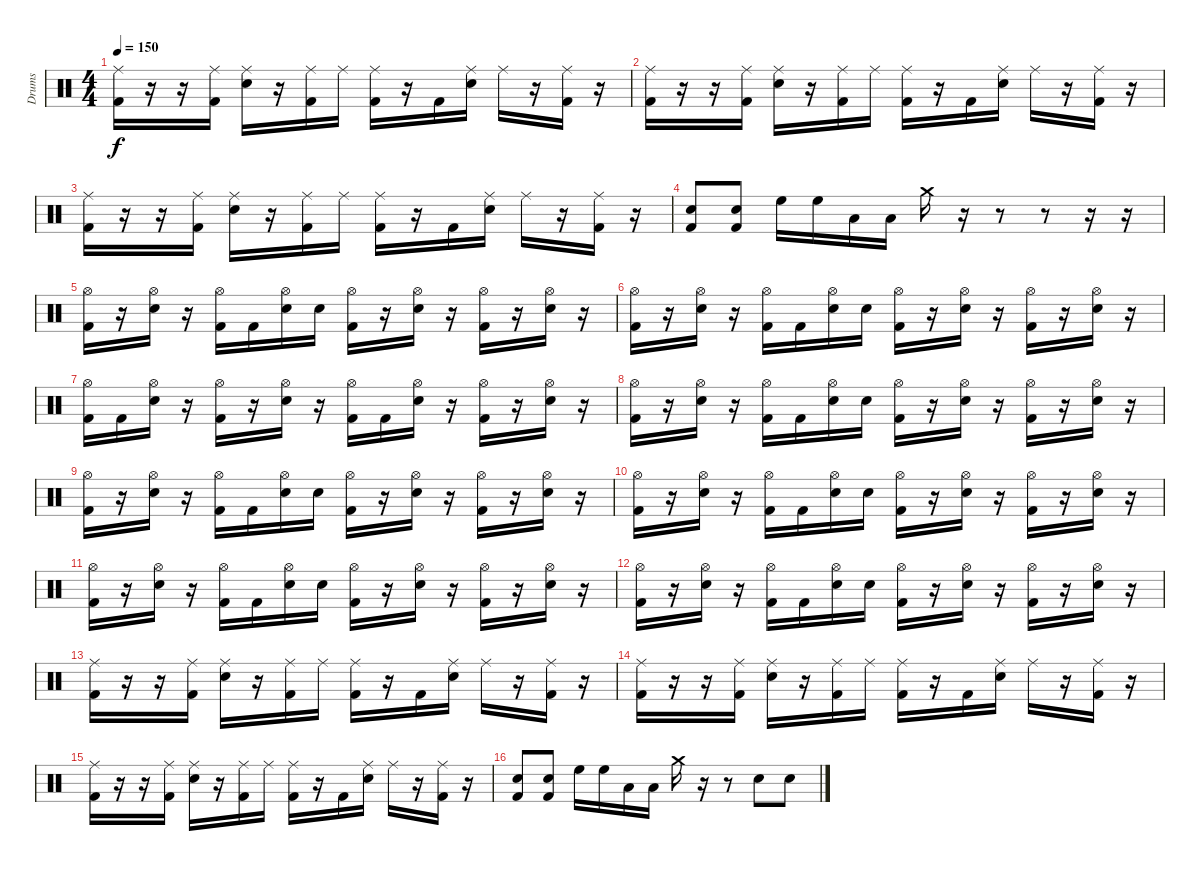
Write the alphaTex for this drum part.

\track ("Drums" "Drums") {instrument percussion}
\staff {score}
\articulation defaults
\ts (4 4)
\tempo 150
\clef neutral
\ks c
("Ride (middle)" "Kick (hit) 2").16{dy f} r.16 r.16 ("Ride (middle)" "Kick (hit) 2").16 ("Ride (middle)" "Electric Snare (hit)").16 r.16 ("Ride (middle)" "Kick (hit) 2").16 "Ride (middle)".16 ("Ride (middle)" "Kick (hit) 2").16 r.16 "Kick (hit) 2".16 ("Ride (middle)" "Electric Snare (hit)").16 "Ride (middle)".16 r.16 ("Ride (middle)" "Kick (hit) 2").16 r.16 |
("Ride (middle)" "Kick (hit) 2").16 r.16 r.16 ("Ride (middle)" "Kick (hit) 2").16 ("Ride (middle)" "Electric Snare (hit)").16 r.16 ("Ride (middle)" "Kick (hit) 2").16 "Ride (middle)".16 ("Ride (middle)" "Kick (hit) 2").16 r.16 "Kick (hit) 2".16 ("Ride (middle)" "Electric Snare (hit)").16 "Ride (middle)".16 r.16 ("Ride (middle)" "Kick (hit) 2").16 r.16 |
("Ride (middle)" "Kick (hit) 2").16 r.16 r.16 ("Ride (middle)" "Kick (hit) 2").16 ("Ride (middle)" "Electric Snare (hit)").16 r.16 ("Ride (middle)" "Kick (hit) 2").16 "Ride (middle)".16 ("Ride (middle)" "Kick (hit) 2").16 r.16 "Kick (hit) 2".16 ("Ride (middle)" "Electric Snare (hit)").16 "Ride (middle)".16 r.16 ("Ride (middle)" "Kick (hit) 2").16 r.16 |
("Electric Snare (hit)" "Kick (hit) 2").8 ("Electric Snare (hit)" "Kick (hit) 2").8 "High Floor Tom (hit)".16 "High Floor Tom (hit)".16 "Low Floor Tom (hit)".16 "Low Floor Tom (hit)".16 "Crash medium (hit)".16 r.16 r.8 r.8 r.16 r.16 |
("Hi-Hat (open)" "Kick (hit) 2").16 r.16 ("Hi-Hat (open)" "Electric Snare (hit)").16 r.16 ("Hi-Hat (open)" "Kick (hit) 2").16 "Kick (hit) 2".16 ("Hi-Hat (open)" "Electric Snare (hit)").16 "Electric Snare (hit)".16 ("Hi-Hat (open)" "Kick (hit) 2").16 r.16 ("Hi-Hat (open)" "Electric Snare (hit)").16 r.16 ("Hi-Hat (open)" "Kick (hit) 2").16 r.16 ("Hi-Hat (open)" "Electric Snare (hit)").16 r.16 |
("Hi-Hat (open)" "Kick (hit) 2").16 r.16 ("Hi-Hat (open)" "Electric Snare (hit)").16 r.16 ("Hi-Hat (open)" "Kick (hit) 2").16 "Kick (hit) 2".16 ("Hi-Hat (open)" "Electric Snare (hit)").16 "Electric Snare (hit)".16 ("Hi-Hat (open)" "Kick (hit) 2").16 r.16 ("Hi-Hat (open)" "Electric Snare (hit)").16 r.16 ("Hi-Hat (open)" "Kick (hit) 2").16 r.16 ("Hi-Hat (open)" "Electric Snare (hit)").16 r.16 |
("Hi-Hat (open)" "Kick (hit) 2").16 "Kick (hit) 2".16 ("Hi-Hat (open)" "Electric Snare (hit)").16 r.16 ("Hi-Hat (open)" "Kick (hit) 2").16 r.16 ("Hi-Hat (open)" "Electric Snare (hit)").16 r.16 ("Hi-Hat (open)" "Kick (hit) 2").16 "Kick (hit) 2".16 ("Hi-Hat (open)" "Electric Snare (hit)").16 r.16 ("Hi-Hat (open)" "Kick (hit) 2").16 r.16 ("Hi-Hat (open)" "Electric Snare (hit)").16 r.16 |
("Hi-Hat (open)" "Kick (hit) 2").16 r.16 ("Hi-Hat (open)" "Electric Snare (hit)").16 r.16 ("Hi-Hat (open)" "Kick (hit) 2").16 "Kick (hit) 2".16 ("Hi-Hat (open)" "Electric Snare (hit)").16 "Electric Snare (hit)".16 ("Hi-Hat (open)" "Kick (hit) 2").16 r.16 ("Hi-Hat (open)" "Electric Snare (hit)").16 r.16 ("Hi-Hat (open)" "Kick (hit) 2").16 r.16 ("Hi-Hat (open)" "Electric Snare (hit)").16 r.16 |
("Hi-Hat (open)" "Kick (hit) 2").16 r.16 ("Hi-Hat (open)" "Electric Snare (hit)").16 r.16 ("Hi-Hat (open)" "Kick (hit) 2").16 "Kick (hit) 2".16 ("Hi-Hat (open)" "Electric Snare (hit)").16 "Electric Snare (hit)".16 ("Hi-Hat (open)" "Kick (hit) 2").16 r.16 ("Hi-Hat (open)" "Electric Snare (hit)").16 r.16 ("Hi-Hat (open)" "Kick (hit) 2").16 r.16 ("Hi-Hat (open)" "Electric Snare (hit)").16 r.16 |
("Hi-Hat (open)" "Kick (hit) 2").16 r.16 ("Hi-Hat (open)" "Electric Snare (hit)").16 r.16 ("Hi-Hat (open)" "Kick (hit) 2").16 "Kick (hit) 2".16 ("Hi-Hat (open)" "Electric Snare (hit)").16 "Electric Snare (hit)".16 ("Hi-Hat (open)" "Kick (hit) 2").16 r.16 ("Hi-Hat (open)" "Electric Snare (hit)").16 r.16 ("Hi-Hat (open)" "Kick (hit) 2").16 r.16 ("Hi-Hat (open)" "Electric Snare (hit)").16 r.16 |
("Hi-Hat (open)" "Kick (hit) 2").16 r.16 ("Hi-Hat (open)" "Electric Snare (hit)").16 r.16 ("Hi-Hat (open)" "Kick (hit) 2").16 "Kick (hit) 2".16 ("Hi-Hat (open)" "Electric Snare (hit)").16 "Electric Snare (hit)".16 ("Hi-Hat (open)" "Kick (hit) 2").16 r.16 ("Hi-Hat (open)" "Electric Snare (hit)").16 r.16 ("Hi-Hat (open)" "Kick (hit) 2").16 r.16 ("Hi-Hat (open)" "Electric Snare (hit)").16 r.16 |
("Hi-Hat (open)" "Kick (hit) 2").16 r.16 ("Hi-Hat (open)" "Electric Snare (hit)").16 r.16 ("Hi-Hat (open)" "Kick (hit) 2").16 "Kick (hit) 2".16 ("Hi-Hat (open)" "Electric Snare (hit)").16 "Electric Snare (hit)".16 ("Hi-Hat (open)" "Kick (hit) 2").16 r.16 ("Hi-Hat (open)" "Electric Snare (hit)").16 r.16 ("Hi-Hat (open)" "Kick (hit) 2").16 r.16 ("Hi-Hat (open)" "Electric Snare (hit)").16 r.16 |
("Ride (middle)" "Kick (hit) 2").16 r.16 r.16 ("Ride (middle)" "Kick (hit) 2").16 ("Ride (middle)" "Electric Snare (hit)").16 r.16 ("Ride (middle)" "Kick (hit) 2").16 "Ride (middle)".16 ("Ride (middle)" "Kick (hit) 2").16 r.16 "Kick (hit) 2".16 ("Ride (middle)" "Electric Snare (hit)").16 "Ride (middle)".16 r.16 ("Ride (middle)" "Kick (hit) 2").16 r.16 |
("Ride (middle)" "Kick (hit) 2").16 r.16 r.16 ("Ride (middle)" "Kick (hit) 2").16 ("Ride (middle)" "Electric Snare (hit)").16 r.16 ("Ride (middle)" "Kick (hit) 2").16 "Ride (middle)".16 ("Ride (middle)" "Kick (hit) 2").16 r.16 "Kick (hit) 2".16 ("Ride (middle)" "Electric Snare (hit)").16 "Ride (middle)".16 r.16 ("Ride (middle)" "Kick (hit) 2").16 r.16 |
("Ride (middle)" "Kick (hit) 2").16 r.16 r.16 ("Ride (middle)" "Kick (hit) 2").16 ("Ride (middle)" "Electric Snare (hit)").16 r.16 ("Ride (middle)" "Kick (hit) 2").16 "Ride (middle)".16 ("Ride (middle)" "Kick (hit) 2").16 r.16 "Kick (hit) 2".16 ("Ride (middle)" "Electric Snare (hit)").16 "Ride (middle)".16 r.16 ("Ride (middle)" "Kick (hit) 2").16 r.16 |
("Electric Snare (hit)" "Kick (hit) 2").8 ("Electric Snare (hit)" "Kick (hit) 2").8 "High Floor Tom (hit)".16 "High Floor Tom (hit)".16 "Low Floor Tom (hit)".16 "Low Floor Tom (hit)".16 "Crash medium (hit)".16 r.16 r.8 "Electric Snare (hit)".8 "Electric Snare (hit)".8
